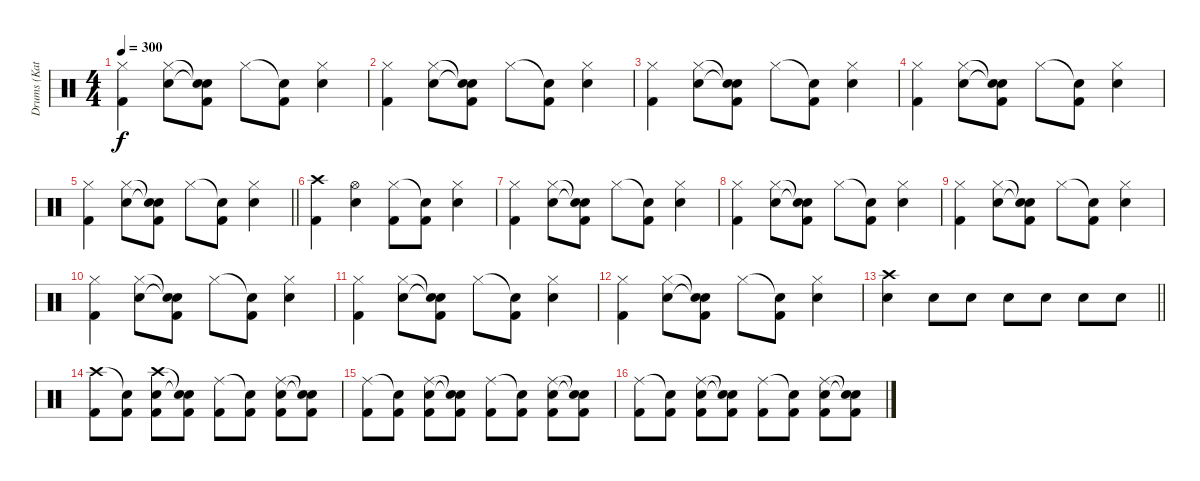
\track ("Drums (Katsuji)" "Drums (Kat") {instrument percussion}
\staff {score}
\articulation defaults
\ts (4 4)
\tempo 300
\clef neutral
\ks c
("Hi-Hat (closed)" "Kick (hit) 2").4{dy f} ("Hi-Hat (closed)" "Snare (hit) 2").8 ("Snare (hit)"{t} "Snare (hit)"{t} "Kick (hit) 2").8 "Hi-Hat (closed)".8 ("Snare (hit)"{t} "Kick (hit) 2").8 ("Hi-Hat (closed)" "Snare (hit) 2").4 |
("Hi-Hat (closed)" "Kick (hit) 2").4 ("Hi-Hat (closed)" "Snare (hit) 2").8 ("Snare (hit)"{t} "Snare (hit)"{t} "Kick (hit) 2").8 "Hi-Hat (closed)".8 ("Snare (hit)"{t} "Kick (hit) 2").8 ("Hi-Hat (closed)" "Snare (hit) 2").4 |
("Hi-Hat (closed)" "Kick (hit) 2").4 ("Hi-Hat (closed)" "Snare (hit) 2").8 ("Snare (hit)"{t} "Snare (hit)"{t} "Kick (hit) 2").8 "Hi-Hat (closed)".8 ("Snare (hit)"{t} "Kick (hit) 2").8 ("Hi-Hat (closed)" "Snare (hit) 2").4 |
("Hi-Hat (closed)" "Kick (hit) 2").4 ("Hi-Hat (closed)" "Snare (hit) 2").8 ("Snare (hit)"{t} "Snare (hit)"{t} "Kick (hit) 2").8 "Hi-Hat (closed)".8 ("Snare (hit)"{t} "Kick (hit) 2").8 ("Hi-Hat (closed)" "Snare (hit) 2").4 |
\barLineRight lightlight
("Hi-Hat (closed)" "Kick (hit) 2").4 ("Hi-Hat (closed)" "Snare (hit) 2").8 ("Snare (hit)"{t} "Snare (hit)"{t} "Kick (hit) 2").8 "Hi-Hat (closed)".8 ("Snare (hit)"{t} "Kick (hit) 2").8 ("Hi-Hat (closed)" "Snare (hit) 2").4 |
("Crash high (hit)" "Kick (hit) 2").4 ("Hi-Hat (open)" "Snare (hit) 2").4 ("Hi-Hat (closed)" "Kick (hit) 2").8 ("Snare (hit)"{t} "Kick (hit) 2").8 ("Hi-Hat (closed)" "Snare (hit) 2").4 |
("Hi-Hat (closed)" "Kick (hit) 2").4 ("Hi-Hat (closed)" "Snare (hit) 2").8 ("Snare (hit)"{t} "Snare (hit)"{t} "Kick (hit) 2").8 "Hi-Hat (closed)".8 ("Snare (hit)"{t} "Kick (hit) 2").8 ("Hi-Hat (closed)" "Snare (hit) 2").4 |
("Hi-Hat (closed)" "Kick (hit) 2").4 ("Hi-Hat (closed)" "Snare (hit) 2").8 ("Snare (hit)"{t} "Snare (hit)"{t} "Kick (hit) 2").8 "Hi-Hat (closed)".8 ("Snare (hit)"{t} "Kick (hit) 2").8 ("Hi-Hat (closed)" "Snare (hit) 2").4 |
("Hi-Hat (closed)" "Kick (hit) 2").4 ("Hi-Hat (closed)" "Snare (hit) 2").8 ("Snare (hit)"{t} "Snare (hit)"{t} "Kick (hit) 2").8 "Hi-Hat (closed)".8 ("Snare (hit)"{t} "Kick (hit) 2").8 ("Hi-Hat (closed)" "Snare (hit) 2").4 |
("Hi-Hat (closed)" "Kick (hit) 2").4 ("Hi-Hat (closed)" "Snare (hit) 2").8 ("Snare (hit)"{t} "Snare (hit)"{t} "Kick (hit) 2").8 "Hi-Hat (closed)".8 ("Snare (hit)"{t} "Kick (hit) 2").8 ("Hi-Hat (closed)" "Snare (hit) 2").4 |
("Hi-Hat (closed)" "Kick (hit) 2").4 ("Hi-Hat (closed)" "Snare (hit) 2").8 ("Snare (hit)"{t} "Snare (hit)"{t} "Kick (hit) 2").8 "Hi-Hat (closed)".8 ("Snare (hit)"{t} "Kick (hit) 2").8 ("Hi-Hat (closed)" "Snare (hit) 2").4 |
("Hi-Hat (closed)" "Kick (hit) 2").4 ("Hi-Hat (closed)" "Snare (hit) 2").8 ("Snare (hit)"{t} "Snare (hit)"{t} "Kick (hit) 2").8 "Hi-Hat (closed)".8 ("Snare (hit)"{t} "Kick (hit) 2").8 ("Hi-Hat (closed)" "Snare (hit) 2").4 |
\barLineRight lightlight
("Crash high (hit)" "Snare (hit) 2").4 "Snare (hit) 2".8 "Snare (hit) 2".8 "Snare (hit) 2".8 "Snare (hit) 2".8 "Snare (hit) 2".8 "Snare (hit) 2".8 |
("Crash high (hit)" "Kick (hit) 2").8 ("Snare (hit)"{t} "Kick (hit) 2").8 ("Crash high (hit)" "Snare (hit) 2" "Kick (hit) 2").8 ("Snare (hit)"{t} "Snare (hit)"{t} "Kick (hit) 2").8 ("Ride (middle)" "Kick (hit) 2").8 ("Snare (hit)"{t} "Kick (hit) 2").8 ("Ride (middle)" "Snare (hit) 2" "Kick (hit) 2").8 ("Snare (hit)"{t} "Snare (hit)"{t} "Kick (hit) 2").8 |
("Ride (middle)" "Kick (hit) 2").8 ("Snare (hit)"{t} "Kick (hit) 2").8 ("Ride (middle)" "Snare (hit) 2" "Kick (hit) 2").8 ("Snare (hit)"{t} "Snare (hit)"{t} "Kick (hit) 2").8 ("Ride (middle)" "Kick (hit) 2").8 ("Snare (hit)"{t} "Kick (hit) 2").8 ("Ride (middle)" "Snare (hit) 2" "Kick (hit) 2").8 ("Snare (hit)"{t} "Snare (hit)"{t} "Kick (hit) 2").8 |
("Ride (middle)" "Kick (hit) 2").8 ("Snare (hit)"{t} "Kick (hit) 2").8 ("Ride (middle)" "Snare (hit) 2" "Kick (hit) 2").8 ("Snare (hit)"{t} "Snare (hit)"{t} "Kick (hit) 2").8 ("Ride (middle)" "Kick (hit) 2").8 ("Snare (hit)"{t} "Kick (hit) 2").8 ("Ride (middle)" "Snare (hit) 2" "Kick (hit) 2").8 ("Snare (hit)"{t} "Snare (hit)"{t} "Kick (hit) 2").8
